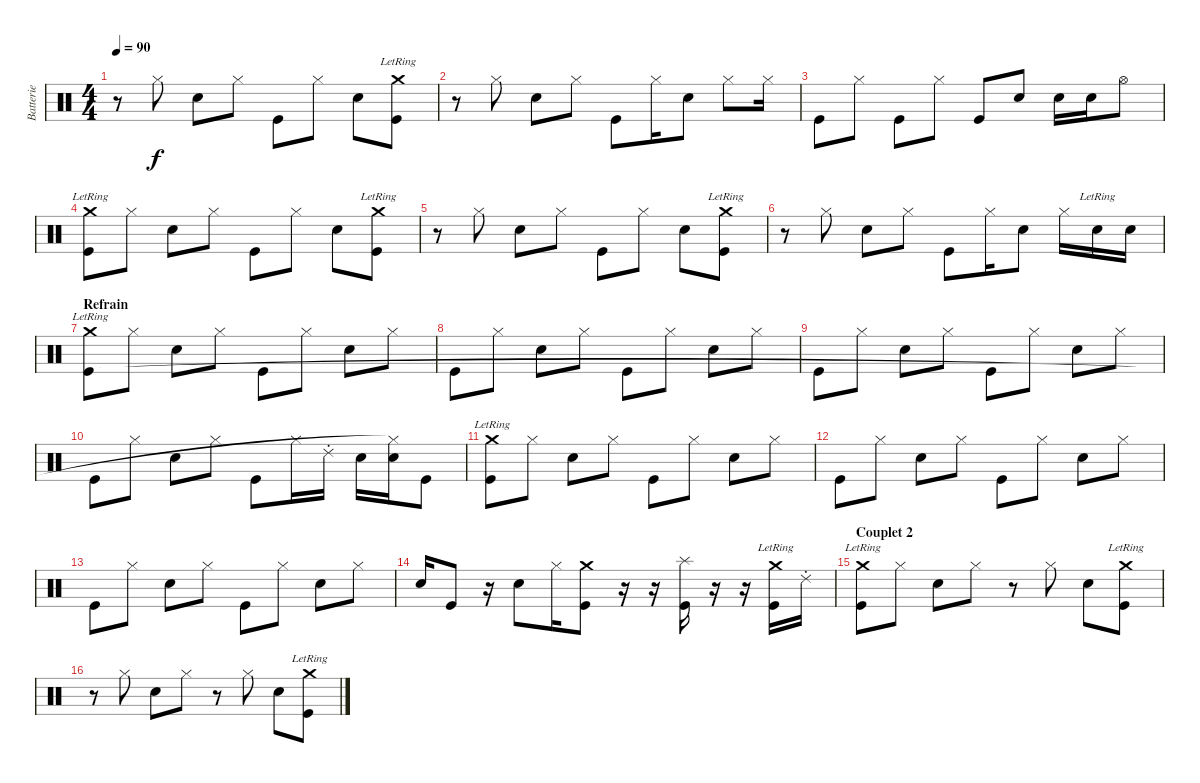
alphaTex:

\track ("Batterie" "Batterie") {instrument percussion}
\staff {score}
\articulation defaults
\ts (4 4)
\tempo 90
\clef neutral
\ks c
r.8{dy f} "Hi-Hat (closed)".8 "Electric Snare (hit)".8 "Hi-Hat (closed)".8 "Kick (hit)".8 "Hi-Hat (closed)".8 "Electric Snare (hit)".8 ("Crash medium (hit)"{lr} "Kick (hit)").8 |
r.8 "Hi-Hat (closed)".8 "Electric Snare (hit)".8 "Hi-Hat (closed)".8 "Kick (hit)".8 "Hi-Hat (closed)".16 "Electric Snare (hit)".8 "Hi-Hat (closed)".8 "Hi-Hat (closed)".16 |
"Kick (hit)".8 "Hi-Hat (closed)".8 "Kick (hit)".8 "Hi-Hat (closed)".8 "Kick (hit)".8 "Electric Snare (hit)".8 "Electric Snare (hit)".16 "Electric Snare (hit)".16 "Hi-Hat (open)".8 |
("Crash medium (hit)"{lr} "Kick (hit)").8 "Hi-Hat (closed)".8 "Electric Snare (hit)".8 "Hi-Hat (closed)".8 "Kick (hit)".8 "Hi-Hat (closed)".8 "Electric Snare (hit)".8 ("Crash medium (hit)"{lr} "Kick (hit)").8 |
r.8 "Hi-Hat (closed)".8 "Electric Snare (hit)".8 "Hi-Hat (closed)".8 "Kick (hit)".8 "Hi-Hat (closed)".8 "Electric Snare (hit)".8 ("Crash medium (hit)"{lr} "Kick (hit)").8 |
r.8 "Hi-Hat (closed)".8 "Electric Snare (hit)".8 "Hi-Hat (closed)".8 "Kick (hit)".8 "Hi-Hat (closed)".16 "Electric Snare (hit)".8 "Hi-Hat (closed)".16 "Electric Snare (hit)"{lr}.16 "Electric Snare (hit)".16 |
\section ("" "Refrain")
("Crash medium (hit)"{lr} "Kick (hit)").8 "Hi-Hat (closed)".8 "Electric Snare (hit)".8 "Hi-Hat (closed)".8 "Kick (hit)".8 "Hi-Hat (closed)".8 "Electric Snare (hit)".8 "Hi-Hat (closed)".8 |
"Kick (hit)".8 "Hi-Hat (closed)".8 "Electric Snare (hit)".8 "Hi-Hat (closed)".8 "Kick (hit)".8 "Hi-Hat (closed)".8 "Electric Snare (hit)".8 "Hi-Hat (closed)".8 |
"Kick (hit)".8 "Hi-Hat (closed)".8 "Electric Snare (hit)".8 "Hi-Hat (closed)".8 "Kick (hit)".8 "Hi-Hat (closed)".8 "Electric Snare (hit)".8 "Hi-Hat (closed)".8 |
"Kick (hit)".8 "Hi-Hat (closed)".8 "Electric Snare (hit)".8 "Hi-Hat (closed)".8 "Kick (hit)".8 "Hi-Hat (closed)".16 "Ride (choke) 2".16 "Electric Snare (hit)".16 ("Electric Snare (hit)" "Hi-Hat (closed)"{t}).16 "Kick (hit)".8 |
("Crash medium (hit)"{lr} "Kick (hit)").8 "Hi-Hat (closed)".8 "Electric Snare (hit)".8 "Hi-Hat (closed)".8 "Kick (hit)".8 "Hi-Hat (closed)".8 "Electric Snare (hit)".8 "Hi-Hat (closed)".8 |
"Kick (hit)".8 "Hi-Hat (closed)".8 "Electric Snare (hit)".8 "Hi-Hat (closed)".8 "Kick (hit)".8 "Hi-Hat (closed)".8 "Electric Snare (hit)".8 "Hi-Hat (closed)".8 |
"Kick (hit)".8 "Hi-Hat (closed)".8 "Electric Snare (hit)".8 "Hi-Hat (closed)".8 "Kick (hit)".8 "Hi-Hat (closed)".8 "Electric Snare (hit)".8 "Hi-Hat (closed)".8 |
"Electric Snare (hit)".16 "Kick (hit)".8 r.16 "Electric Snare (hit)".8 "Hi-Hat (closed)".16 ("Crash medium (hit)" "Kick (hit)").8 r.16 r.16 ("Splash (hit)" "Kick (hit)").16 r.16 r.16 ("Crash medium (hit)"{lr} "Kick (hit)").16 "Ride (choke) 2".16 |
\section ("" "Couplet 2")
("Crash medium (hit)"{lr} "Kick (hit)").8 "Hi-Hat (closed)".8 "Electric Snare (hit)".8 "Hi-Hat (closed)".8 r.8 "Hi-Hat (closed)".8 "Electric Snare (hit)".8 ("Crash medium (hit)"{lr} "Kick (hit)").8 |
r.8 "Hi-Hat (closed)".8 "Electric Snare (hit)".8 "Hi-Hat (closed)".8 r.8 "Hi-Hat (closed)".8 "Electric Snare (hit)".8 ("Crash medium (hit)"{lr} "Kick (hit)").8
